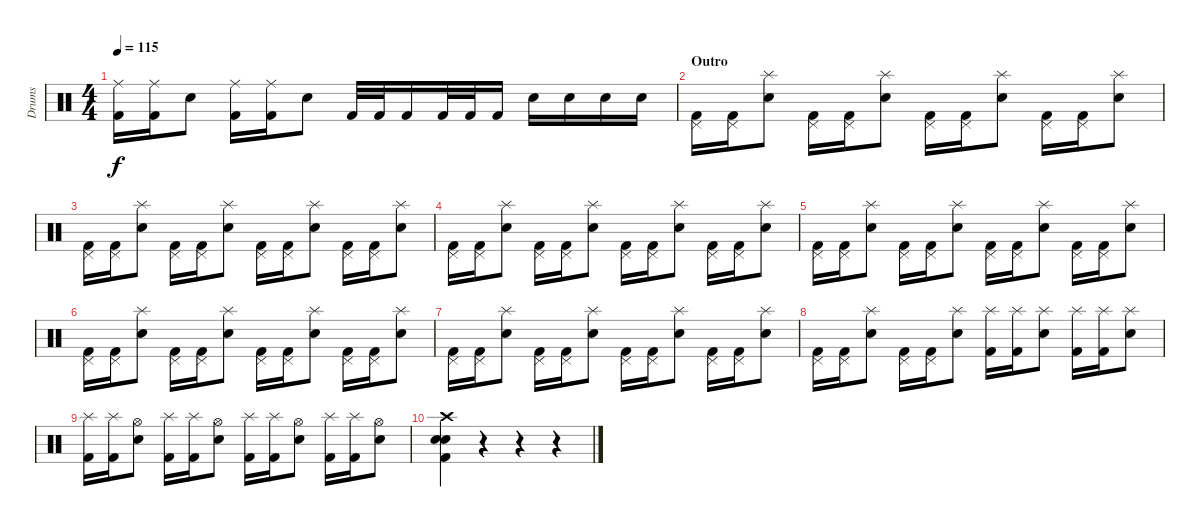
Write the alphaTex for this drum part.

\track ("Drums" "Drums") {instrument percussion}
\staff {score}
\articulation defaults
\ts (4 4)
\tempo 115
\clef neutral
\ks c
("Ride (middle)" "Kick (hit) 2").16{dy f} ("Ride (middle)" "Kick (hit) 2").16 "Electric Snare (hit)".8 ("Ride (middle)" "Kick (hit) 2").16 ("Ride (middle)" "Kick (hit) 2").16 "Electric Snare (hit)".8 "Kick (hit) 2".32 "Kick (hit) 2".32 "Kick (hit) 2".16 "Kick (hit) 2".32 "Kick (hit) 2".32 "Kick (hit) 2".16 "Electric Snare (hit)".16 "Electric Snare (hit)".16 "Electric Snare (hit)".16 "Electric Snare (hit)".16 |
\section ("" "Outro")
("Pedal Hi-Hat (hit)" "Kick (hit) 2").16 ("Pedal Hi-Hat (hit)" "Kick (hit) 2").16 ("Splash (hit)" "Snare (hit) 2").8 ("Pedal Hi-Hat (hit)" "Kick (hit) 2").16 ("Pedal Hi-Hat (hit)" "Kick (hit) 2").16 ("Splash (hit)" "Snare (hit) 2").8 ("Pedal Hi-Hat (hit)" "Kick (hit) 2").16 ("Pedal Hi-Hat (hit)" "Kick (hit) 2").16 ("Splash (hit)" "Snare (hit) 2").8 ("Pedal Hi-Hat (hit)" "Kick (hit) 2").16 ("Pedal Hi-Hat (hit)" "Kick (hit) 2").16 ("Splash (hit)" "Snare (hit) 2").8 |
("Pedal Hi-Hat (hit)" "Kick (hit) 2").16 ("Pedal Hi-Hat (hit)" "Kick (hit) 2").16 ("Splash (hit)" "Snare (hit) 2").8 ("Pedal Hi-Hat (hit)" "Kick (hit) 2").16 ("Pedal Hi-Hat (hit)" "Kick (hit) 2").16 ("Splash (hit)" "Snare (hit) 2").8 ("Pedal Hi-Hat (hit)" "Kick (hit) 2").16 ("Pedal Hi-Hat (hit)" "Kick (hit) 2").16 ("Splash (hit)" "Snare (hit) 2").8 ("Pedal Hi-Hat (hit)" "Kick (hit) 2").16 ("Pedal Hi-Hat (hit)" "Kick (hit) 2").16 ("Splash (hit)" "Snare (hit) 2").8 |
("Pedal Hi-Hat (hit)" "Kick (hit) 2").16 ("Pedal Hi-Hat (hit)" "Kick (hit) 2").16 ("Splash (hit)" "Snare (hit) 2").8 ("Pedal Hi-Hat (hit)" "Kick (hit) 2").16 ("Pedal Hi-Hat (hit)" "Kick (hit) 2").16 ("Splash (hit)" "Snare (hit) 2").8 ("Pedal Hi-Hat (hit)" "Kick (hit) 2").16 ("Pedal Hi-Hat (hit)" "Kick (hit) 2").16 ("Splash (hit)" "Snare (hit) 2").8 ("Pedal Hi-Hat (hit)" "Kick (hit) 2").16 ("Pedal Hi-Hat (hit)" "Kick (hit) 2").16 ("Splash (hit)" "Snare (hit) 2").8 |
("Pedal Hi-Hat (hit)" "Kick (hit) 2").16 ("Pedal Hi-Hat (hit)" "Kick (hit) 2").16 ("Splash (hit)" "Snare (hit) 2").8 ("Pedal Hi-Hat (hit)" "Kick (hit) 2").16 ("Pedal Hi-Hat (hit)" "Kick (hit) 2").16 ("Splash (hit)" "Snare (hit) 2").8 ("Pedal Hi-Hat (hit)" "Kick (hit) 2").16 ("Pedal Hi-Hat (hit)" "Kick (hit) 2").16 ("Splash (hit)" "Snare (hit) 2").8 ("Pedal Hi-Hat (hit)" "Kick (hit) 2").16 ("Pedal Hi-Hat (hit)" "Kick (hit) 2").16 ("Splash (hit)" "Snare (hit) 2").8 |
("Pedal Hi-Hat (hit)" "Kick (hit) 2").16 ("Pedal Hi-Hat (hit)" "Kick (hit) 2").16 ("Splash (hit)" "Snare (hit) 2").8 ("Pedal Hi-Hat (hit)" "Kick (hit) 2").16 ("Pedal Hi-Hat (hit)" "Kick (hit) 2").16 ("Splash (hit)" "Snare (hit) 2").8 ("Pedal Hi-Hat (hit)" "Kick (hit) 2").16 ("Pedal Hi-Hat (hit)" "Kick (hit) 2").16 ("Splash (hit)" "Snare (hit) 2").8 ("Pedal Hi-Hat (hit)" "Kick (hit) 2").16 ("Pedal Hi-Hat (hit)" "Kick (hit) 2").16 ("Splash (hit)" "Snare (hit) 2").8 |
("Pedal Hi-Hat (hit)" "Kick (hit) 2").16 ("Pedal Hi-Hat (hit)" "Kick (hit) 2").16 ("Splash (hit)" "Snare (hit) 2").8 ("Pedal Hi-Hat (hit)" "Kick (hit) 2").16 ("Pedal Hi-Hat (hit)" "Kick (hit) 2").16 ("Splash (hit)" "Snare (hit) 2").8 ("Pedal Hi-Hat (hit)" "Kick (hit) 2").16 ("Pedal Hi-Hat (hit)" "Kick (hit) 2").16 ("Splash (hit)" "Snare (hit) 2").8 ("Pedal Hi-Hat (hit)" "Kick (hit) 2").16 ("Pedal Hi-Hat (hit)" "Kick (hit) 2").16 ("Splash (hit)" "Snare (hit) 2").8 |
("Pedal Hi-Hat (hit)" "Kick (hit) 2").16 ("Pedal Hi-Hat (hit)" "Kick (hit) 2").16 ("Splash (hit)" "Snare (hit) 2").8 ("Pedal Hi-Hat (hit)" "Kick (hit) 2").16 ("Pedal Hi-Hat (hit)" "Kick (hit) 2").16 ("Splash (hit)" "Snare (hit) 2").8 ("Splash (hit)" "Kick (hit) 2").16 ("Splash (hit)" "Kick (hit) 2").16 ("Splash (hit)" "Snare (hit) 2").8 ("Splash (hit)" "Kick (hit) 2").16 ("Splash (hit)" "Kick (hit) 2").16 ("Splash (hit)" "Snare (hit) 2").8 |
("Splash (hit)" "Kick (hit) 2").16 ("Splash (hit)" "Kick (hit) 2").16 ("Hi-Hat (open)" "Snare (hit) 2").8 ("Splash (hit)" "Kick (hit) 2").16 ("Splash (hit)" "Kick (hit) 2").16 ("Hi-Hat (open)" "Snare (hit) 2").8 ("Splash (hit)" "Kick (hit) 2").16 ("Splash (hit)" "Kick (hit) 2").16 ("Hi-Hat (open)" "Snare (hit) 2").8 ("Splash (hit)" "Kick (hit) 2").16 ("Splash (hit)" "Kick (hit) 2").16 ("Hi-Hat (open)" "Snare (hit) 2").8 |
("Crash high (hit)" "Electric Snare (hit)" "Snare (hit) 2" "Kick (hit) 2").4 r.4 r.4 r.4
